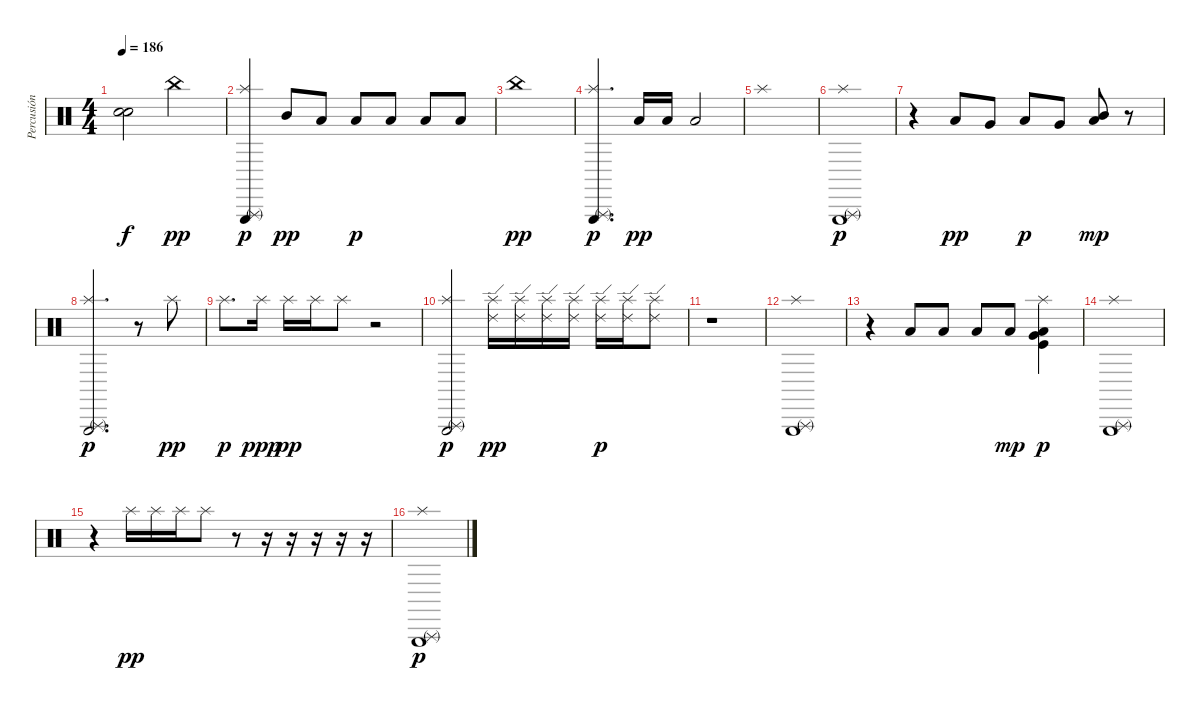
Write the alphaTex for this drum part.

\track ("Percusión" "Percusión") {instrument percussion}
\staff {score}
\articulation defaults
\ts (4 4)
\tempo 186
\clef neutral
\ks c
("Snare (hit)"{t} "Snare (hit)"{t}).2{dy f} "China (hit)".2{dy pp} |
("Splash (hit)" "Triangle (rnute)" "Triangle (hit)").4{dy p} "Mid Tom (hit)".8{dy pp} "Low Tom (hit)".8 "Low Tom (hit)".8{dy p} "Low Tom (hit)".8 "Low Floor Tom (hit)".8 "Low Floor Tom (hit)".8 |
"China (hit)".1{dy pp} |
("Splash (hit)" "Triangle (rnute)" "Triangle (hit)").4{d dy p} "Low Tom (hit)".16{dy pp} "Low Tom (hit)".16 "Low Tom (hit)".2 |
"Splash (hit)".1 |
("Splash (hit)" "Triangle (rnute)" "Triangle (hit)").1{dy p} |
r.4 "Low Tom (hit)".8{dy pp} "Very Low Tom (hit)".8 "Low Tom (hit)".8{dy p} "Very Low Tom (hit)".8 ("Low Floor Tom (hit)" "Mid Tom (hit)").8{dy mp} r.8 |
("Splash (hit)" "Triangle (rnute)" "Triangle (hit)").2{d dy p} r.8 "Splash (hit)".8{dy pp} |
"Splash (hit)".8{d dy p} "Splash (hit)".16{dy ppp} "Splash (hit)".16{dy pp} "Splash (hit)".16 "Splash (hit)".8 r.2 |
("Splash (hit)" "Triangle (rnute)" "Triangle (hit)").2{dy p} ("Splash (hit)" "Ride (edge) 2").16{dy pp} ("Splash (hit)" "Ride (edge) 2").16 ("Splash (hit)" "Ride (edge) 2").16 ("Splash (hit)" "Ride (edge) 2").16 ("Splash (hit)" "Ride (edge) 2").16{dy p} ("Splash (hit)" "Ride (edge) 2").16 ("Splash (hit)" "Ride (edge) 2").8 |
r.1 |
("Splash (hit)" "Triangle (rnute)" "Triangle (hit)").1 |
r.4 "Low Tom (hit)".8 "Low Tom (hit)".8 "Low Tom (hit)".8 "Low Tom (hit)".8{dy mp} ("Splash (hit)" "Very Low Tom (hit)" "Low Tom (hit)" "Kick (hit)").4{dy p} |
("Splash (hit)" "Triangle (rnute)" "Triangle (hit)").1 |
r.4 "Splash (hit)".16{dy pp} "Splash (hit)".16 "Splash (hit)".16 "Splash (hit)".8 r.8 r.16 r.16 r.16 r.16 r.16 |
("Splash (hit)" "Triangle (rnute)" "Triangle (hit)").1{dy p}
